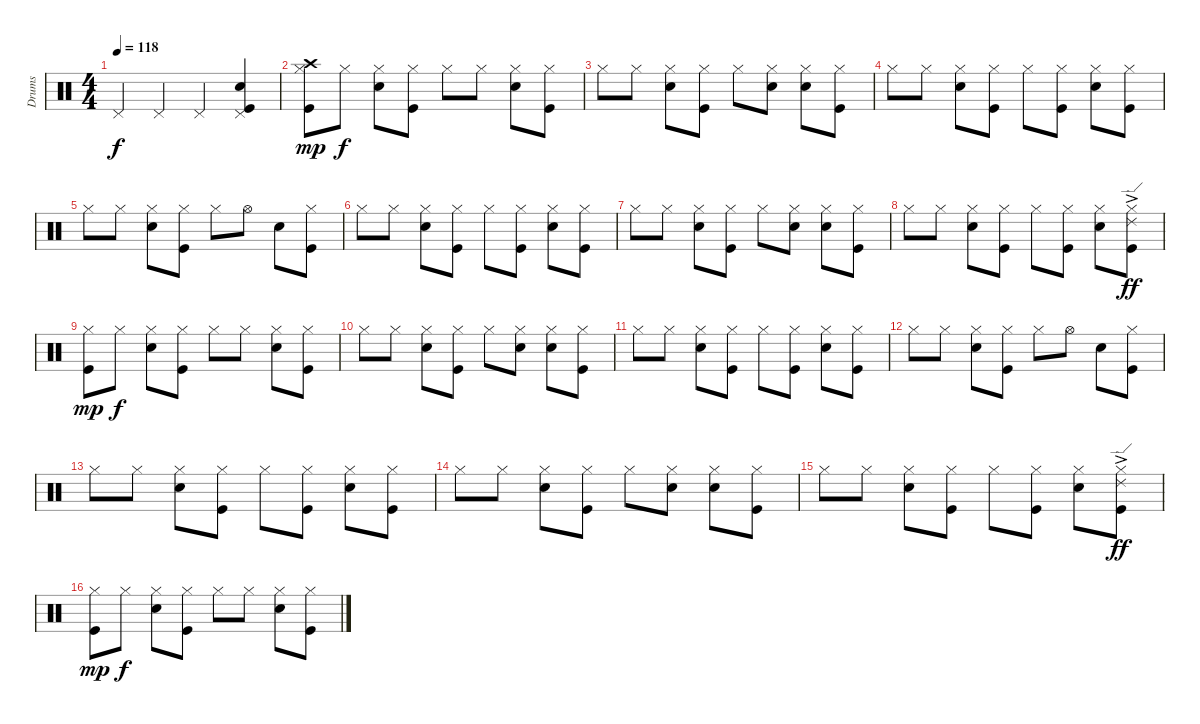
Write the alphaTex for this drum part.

\track ("Drums" "Drums") {instrument percussion}
\staff {score}
\articulation defaults
\ts (4 4)
\tempo 118
\clef neutral
\ks c "Pedal Hi-Hat (hit)".4{dy f} "Pedal Hi-Hat (hit)".4 "Pedal Hi-Hat (hit)".4
("Pedal Hi-Hat (hit)" "Snare (hit) 2" "Kick (hit)").4 |
("Hi-Hat (closed)" "Crash high (hit)" "Kick (hit)").8{dy mp} "Hi-Hat (closed)".8{dy f} ("Hi-Hat (closed)" "Snare (hit) 2").8 ("Hi-Hat (closed)" "Kick (hit)").8 "Hi-Hat (closed)".8 "Hi-Hat (closed)".8 ("Hi-Hat (closed)" "Snare (hit) 2").8 ("Hi-Hat (closed)" "Kick (hit)").8 |
"Hi-Hat (closed)".8 "Hi-Hat (closed)".8 ("Hi-Hat (closed)" "Snare (hit) 2").8 ("Hi-Hat (closed)" "Kick (hit)").8 "Hi-Hat (closed)".8 ("Hi-Hat (closed)" "Snare (hit) 2").8 ("Hi-Hat (closed)" "Snare (hit) 2").8 ("Hi-Hat (closed)" "Kick (hit)").8 |
"Hi-Hat (closed)".8 "Hi-Hat (closed)".8 ("Hi-Hat (closed)" "Snare (hit) 2").8 ("Hi-Hat (closed)" "Kick (hit)").8 "Hi-Hat (closed)".8 ("Hi-Hat (closed)" "Kick (hit)").8 ("Hi-Hat (closed)" "Snare (hit) 2").8 ("Hi-Hat (closed)" "Kick (hit)").8 |
"Hi-Hat (closed)".8 "Hi-Hat (closed)".8 ("Hi-Hat (closed)" "Snare (hit) 2").8 ("Hi-Hat (closed)" "Kick (hit)").8 "Hi-Hat (closed)".8 "Hi-Hat (open)".8 "Snare (hit) 2".8 ("Hi-Hat (closed)" "Kick (hit)").8 |
"Hi-Hat (closed)".8 "Hi-Hat (closed)".8 ("Hi-Hat (closed)" "Snare (hit) 2").8 ("Hi-Hat (closed)" "Kick (hit)").8 "Hi-Hat (closed)".8 ("Hi-Hat (closed)" "Kick (hit)").8 ("Hi-Hat (closed)" "Snare (hit) 2").8 ("Hi-Hat (closed)" "Kick (hit)").8 |
"Hi-Hat (closed)".8 "Hi-Hat (closed)".8 ("Hi-Hat (closed)" "Snare (hit) 2").8 ("Hi-Hat (closed)" "Kick (hit)").8 "Hi-Hat (closed)".8 ("Hi-Hat (closed)" "Snare (hit) 2").8 ("Hi-Hat (closed)" "Snare (hit) 2").8 ("Hi-Hat (closed)" "Kick (hit)").8 |
"Hi-Hat (closed)".8 "Hi-Hat (closed)".8 ("Hi-Hat (closed)" "Snare (hit) 2").8 ("Hi-Hat (closed)" "Kick (hit)").8 "Hi-Hat (closed)".8 ("Hi-Hat (closed)" "Kick (hit)").8 ("Hi-Hat (closed)" "Snare (hit) 2").8 ("Hi-Hat (closed)" "Ride (edge) 2"{ac} "Kick (hit)").8{dy ff} |
("Hi-Hat (closed)" "Kick (hit)").8{dy mp} "Hi-Hat (closed)".8{dy f} ("Hi-Hat (closed)" "Snare (hit) 2").8 ("Hi-Hat (closed)" "Kick (hit)").8 "Hi-Hat (closed)".8 "Hi-Hat (closed)".8 ("Hi-Hat (closed)" "Snare (hit) 2").8 ("Hi-Hat (closed)" "Kick (hit)").8 |
"Hi-Hat (closed)".8 "Hi-Hat (closed)".8 ("Hi-Hat (closed)" "Snare (hit) 2").8 ("Hi-Hat (closed)" "Kick (hit)").8 "Hi-Hat (closed)".8 ("Hi-Hat (closed)" "Snare (hit) 2").8 ("Hi-Hat (closed)" "Snare (hit) 2").8 ("Hi-Hat (closed)" "Kick (hit)").8 |
"Hi-Hat (closed)".8 "Hi-Hat (closed)".8 ("Hi-Hat (closed)" "Snare (hit) 2").8 ("Hi-Hat (closed)" "Kick (hit)").8 "Hi-Hat (closed)".8 ("Hi-Hat (closed)" "Kick (hit)").8 ("Hi-Hat (closed)" "Snare (hit) 2").8 ("Hi-Hat (closed)" "Kick (hit)").8 |
"Hi-Hat (closed)".8 "Hi-Hat (closed)".8 ("Hi-Hat (closed)" "Snare (hit) 2").8 ("Hi-Hat (closed)" "Kick (hit)").8 "Hi-Hat (closed)".8 "Hi-Hat (open)".8 "Snare (hit) 2".8 ("Hi-Hat (closed)" "Kick (hit)").8 |
"Hi-Hat (closed)".8 "Hi-Hat (closed)".8 ("Hi-Hat (closed)" "Snare (hit) 2").8 ("Hi-Hat (closed)" "Kick (hit)").8 "Hi-Hat (closed)".8 ("Hi-Hat (closed)" "Kick (hit)").8 ("Hi-Hat (closed)" "Snare (hit) 2").8 ("Hi-Hat (closed)" "Kick (hit)").8 |
"Hi-Hat (closed)".8 "Hi-Hat (closed)".8 ("Hi-Hat (closed)" "Snare (hit) 2").8 ("Hi-Hat (closed)" "Kick (hit)").8 "Hi-Hat (closed)".8 ("Hi-Hat (closed)" "Snare (hit) 2").8 ("Hi-Hat (closed)" "Snare (hit) 2").8 ("Hi-Hat (closed)" "Kick (hit)").8 |
"Hi-Hat (closed)".8 "Hi-Hat (closed)".8 ("Hi-Hat (closed)" "Snare (hit) 2").8 ("Hi-Hat (closed)" "Kick (hit)").8 "Hi-Hat (closed)".8 ("Hi-Hat (closed)" "Kick (hit)").8 ("Hi-Hat (closed)" "Snare (hit) 2").8 ("Hi-Hat (closed)" "Ride (edge) 2"{ac} "Kick (hit)").8{dy ff} |
("Hi-Hat (closed)" "Kick (hit)").8{dy mp} "Hi-Hat (closed)".8{dy f} ("Hi-Hat (closed)" "Snare (hit) 2").8 ("Hi-Hat (closed)" "Kick (hit)").8 "Hi-Hat (closed)".8 "Hi-Hat (closed)".8 ("Hi-Hat (closed)" "Snare (hit) 2").8 ("Hi-Hat (closed)" "Kick (hit)").8
